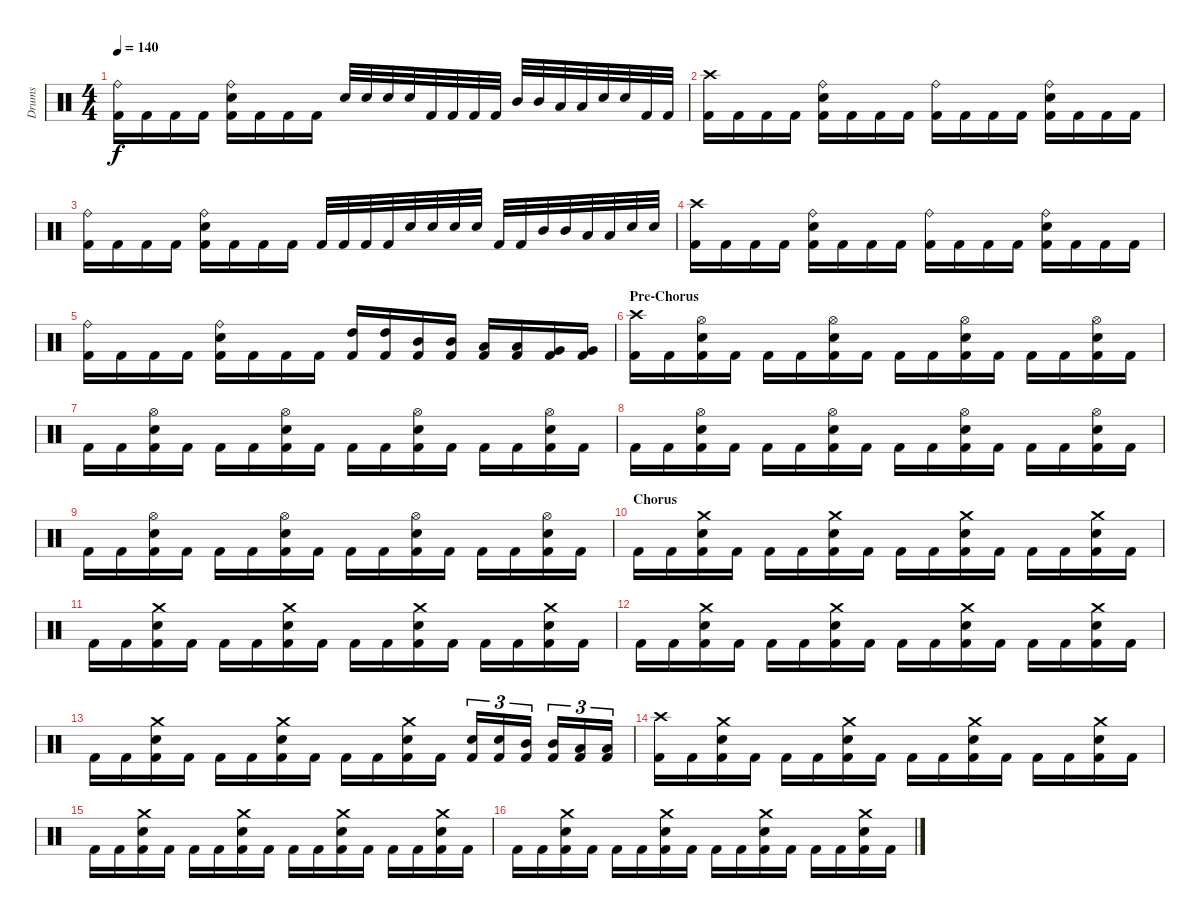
\track ("Drums" "Drums") {instrument percussion}
\staff {score}
\articulation defaults
\ts (4 4)
\tempo 140
\clef neutral
\ks c
("Ride (bell)" "Kick (hit) 2").16{dy f} "Kick (hit) 2".16 "Kick (hit) 2".16 "Kick (hit) 2".16 ("Ride (bell)" "Electric Snare (hit)" "Kick (hit) 2").16 "Kick (hit) 2".16 "Kick (hit) 2".16 "Kick (hit) 2".16 "Electric Snare (hit)".32 "Electric Snare (hit)".32 "Electric Snare (hit)".32 "Electric Snare (hit)".32 "Kick (hit) 2".32 "Kick (hit) 2".32 "Kick (hit) 2".32 "Kick (hit) 2".32 "Mid Tom (hit)".32 "Mid Tom (hit)".32 "Low Tom (hit)".32 "Low Tom (hit)".32 "Electric Snare (hit)".32 "Electric Snare (hit)".32 "Kick (hit) 2".32 "Kick (hit) 2".32 |
("Crash high (hit)" "Kick (hit) 2").16 "Kick (hit) 2".16 "Kick (hit) 2".16 "Kick (hit) 2".16 ("Ride (bell)" "Electric Snare (hit)" "Kick (hit) 2").16 "Kick (hit) 2".16 "Kick (hit) 2".16 "Kick (hit) 2".16 ("Ride (bell)" "Kick (hit) 2").16 "Kick (hit) 2".16 "Kick (hit) 2".16 "Kick (hit) 2".16 ("Ride (bell)" "Electric Snare (hit)" "Kick (hit) 2").16 "Kick (hit) 2".16 "Kick (hit) 2".16 "Kick (hit) 2".16 |
("Ride (bell)" "Kick (hit) 2").16 "Kick (hit) 2".16 "Kick (hit) 2".16 "Kick (hit) 2".16 ("Ride (bell)" "Electric Snare (hit)" "Kick (hit) 2").16 "Kick (hit) 2".16 "Kick (hit) 2".16 "Kick (hit) 2".16 "Kick (hit) 2".32 "Kick (hit) 2".32 "Kick (hit) 2".32 "Kick (hit) 2".32 "Electric Snare (hit)".32 "Electric Snare (hit)".32 "Electric Snare (hit)".32 "Electric Snare (hit)".32 "Kick (hit) 2".32 "Kick (hit) 2".32 "Mid Tom (hit)".32 "Mid Tom (hit)".32 "Low Tom (hit)".32 "Low Tom (hit)".32 "Electric Snare (hit)".32 "Electric Snare (hit)".32 |
("Crash high (hit)" "Kick (hit) 2").16 "Kick (hit) 2".16 "Kick (hit) 2".16 "Kick (hit) 2".16 ("Ride (bell)" "Electric Snare (hit)" "Kick (hit) 2").16 "Kick (hit) 2".16 "Kick (hit) 2".16 "Kick (hit) 2".16 ("Ride (bell)" "Kick (hit) 2").16 "Kick (hit) 2".16 "Kick (hit) 2".16 "Kick (hit) 2".16 ("Ride (bell)" "Electric Snare (hit)" "Kick (hit) 2").16 "Kick (hit) 2".16 "Kick (hit) 2".16 "Kick (hit) 2".16 |
("Ride (bell)" "Kick (hit) 2").16 "Kick (hit) 2".16 "Kick (hit) 2".16 "Kick (hit) 2".16 ("Ride (bell)" "Electric Snare (hit)" "Kick (hit) 2").16 "Kick (hit) 2".16 "Kick (hit) 2".16 "Kick (hit) 2".16 ("High Tom (hit)" "Kick (hit) 2").16 ("High Tom (hit)" "Kick (hit) 2").16 ("Mid Tom (hit)" "Kick (hit) 2").16 ("Mid Tom (hit)" "Kick (hit) 2").16 ("Low Tom (hit)" "Kick (hit) 2").16 ("Low Tom (hit)" "Kick (hit) 2").16 ("Very Low Tom (hit)" "Kick (hit) 2").16 ("Very Low Tom (hit)" "Kick (hit) 2").16 |
\section ("" "Pre-Chorus")
("Crash high (hit)" "Kick (hit) 2").16 "Kick (hit) 2".16 ("Hi-Hat (open)" "Electric Snare (hit)" "Kick (hit) 2").16 "Kick (hit) 2".16 "Kick (hit) 2".16 "Kick (hit) 2".16 ("Hi-Hat (open)" "Electric Snare (hit)" "Kick (hit) 2").16 "Kick (hit) 2".16 "Kick (hit) 2".16 "Kick (hit) 2".16 ("Hi-Hat (open)" "Electric Snare (hit)" "Kick (hit) 2").16 "Kick (hit) 2".16 "Kick (hit) 2".16 "Kick (hit) 2".16 ("Hi-Hat (open)" "Electric Snare (hit)" "Kick (hit) 2").16 "Kick (hit) 2".16 |
"Kick (hit) 2".16 "Kick (hit) 2".16 ("Hi-Hat (open)" "Electric Snare (hit)" "Kick (hit) 2").16 "Kick (hit) 2".16 "Kick (hit) 2".16 "Kick (hit) 2".16 ("Hi-Hat (open)" "Electric Snare (hit)" "Kick (hit) 2").16 "Kick (hit) 2".16 "Kick (hit) 2".16 "Kick (hit) 2".16 ("Hi-Hat (open)" "Electric Snare (hit)" "Kick (hit) 2").16 "Kick (hit) 2".16 "Kick (hit) 2".16 "Kick (hit) 2".16 ("Hi-Hat (open)" "Electric Snare (hit)" "Kick (hit) 2").16 "Kick (hit) 2".16 |
"Kick (hit) 2".16 "Kick (hit) 2".16 ("Hi-Hat (open)" "Electric Snare (hit)" "Kick (hit) 2").16 "Kick (hit) 2".16 "Kick (hit) 2".16 "Kick (hit) 2".16 ("Hi-Hat (open)" "Electric Snare (hit)" "Kick (hit) 2").16 "Kick (hit) 2".16 "Kick (hit) 2".16 "Kick (hit) 2".16 ("Hi-Hat (open)" "Electric Snare (hit)" "Kick (hit) 2").16 "Kick (hit) 2".16 "Kick (hit) 2".16 "Kick (hit) 2".16 ("Hi-Hat (open)" "Electric Snare (hit)" "Kick (hit) 2").16 "Kick (hit) 2".16 |
"Kick (hit) 2".16 "Kick (hit) 2".16 ("Hi-Hat (open)" "Electric Snare (hit)" "Kick (hit) 2").16 "Kick (hit) 2".16 "Kick (hit) 2".16 "Kick (hit) 2".16 ("Hi-Hat (open)" "Electric Snare (hit)" "Kick (hit) 2").16 "Kick (hit) 2".16 "Kick (hit) 2".16 "Kick (hit) 2".16 ("Hi-Hat (open)" "Electric Snare (hit)" "Kick (hit) 2").16 "Kick (hit) 2".16 "Kick (hit) 2".16 "Kick (hit) 2".16 ("Hi-Hat (open)" "Electric Snare (hit)" "Kick (hit) 2").16 "Kick (hit) 2".16 |
\section ("" "Chorus")
"Kick (hit) 2".16 "Kick (hit) 2".16 ("Crash medium (hit)" "Electric Snare (hit)" "Kick (hit) 2").16 "Kick (hit) 2".16 "Kick (hit) 2".16 "Kick (hit) 2".16 ("Crash medium (hit)" "Electric Snare (hit)" "Kick (hit) 2").16 "Kick (hit) 2".16 "Kick (hit) 2".16 "Kick (hit) 2".16 ("Crash medium (hit)" "Electric Snare (hit)" "Kick (hit) 2").16 "Kick (hit) 2".16 "Kick (hit) 2".16 "Kick (hit) 2".16 ("Crash medium (hit)" "Electric Snare (hit)" "Kick (hit) 2").16 "Kick (hit) 2".16 |
"Kick (hit) 2".16 "Kick (hit) 2".16 ("Crash medium (hit)" "Electric Snare (hit)" "Kick (hit) 2").16 "Kick (hit) 2".16 "Kick (hit) 2".16 "Kick (hit) 2".16 ("Crash medium (hit)" "Electric Snare (hit)" "Kick (hit) 2").16 "Kick (hit) 2".16 "Kick (hit) 2".16 "Kick (hit) 2".16 ("Crash medium (hit)" "Electric Snare (hit)" "Kick (hit) 2").16 "Kick (hit) 2".16 "Kick (hit) 2".16 "Kick (hit) 2".16 ("Crash medium (hit)" "Electric Snare (hit)" "Kick (hit) 2").16 "Kick (hit) 2".16 |
"Kick (hit) 2".16 "Kick (hit) 2".16 ("Crash medium (hit)" "Electric Snare (hit)" "Kick (hit) 2").16 "Kick (hit) 2".16 "Kick (hit) 2".16 "Kick (hit) 2".16 ("Crash medium (hit)" "Electric Snare (hit)" "Kick (hit) 2").16 "Kick (hit) 2".16 "Kick (hit) 2".16 "Kick (hit) 2".16 ("Crash medium (hit)" "Electric Snare (hit)" "Kick (hit) 2").16 "Kick (hit) 2".16 "Kick (hit) 2".16 "Kick (hit) 2".16 ("Crash medium (hit)" "Electric Snare (hit)" "Kick (hit) 2").16 "Kick (hit) 2".16 |
"Kick (hit) 2".16 "Kick (hit) 2".16 ("Crash medium (hit)" "Electric Snare (hit)" "Kick (hit) 2").16 "Kick (hit) 2".16 "Kick (hit) 2".16 "Kick (hit) 2".16 ("Crash medium (hit)" "Electric Snare (hit)" "Kick (hit) 2").16 "Kick (hit) 2".16 "Kick (hit) 2".16 "Kick (hit) 2".16 ("Crash medium (hit)" "Electric Snare (hit)" "Kick (hit) 2").16 "Kick (hit) 2".16 ("Electric Snare (hit)" "Kick (hit) 2").16{tu (3 2)} ("Electric Snare (hit)" "Kick (hit) 2").16{tu (3 2)} ("Mid Tom (hit)" "Kick (hit) 2").16{tu (3 2)} ("Mid Tom (hit)" "Kick (hit) 2").16{tu (3 2)} ("Low Tom (hit)" "Kick (hit) 2").16{tu (3 2)} ("Low Tom (hit)" "Kick (hit) 2").16{tu (3 2)} |
("Crash high (hit)" "Kick (hit) 2").16 "Kick (hit) 2".16 ("Crash medium (hit)" "Electric Snare (hit)" "Kick (hit) 2").16 "Kick (hit) 2".16 "Kick (hit) 2".16 "Kick (hit) 2".16 ("Crash medium (hit)" "Electric Snare (hit)" "Kick (hit) 2").16 "Kick (hit) 2".16 "Kick (hit) 2".16 "Kick (hit) 2".16 ("Crash medium (hit)" "Electric Snare (hit)" "Kick (hit) 2").16 "Kick (hit) 2".16 "Kick (hit) 2".16 "Kick (hit) 2".16 ("Crash medium (hit)" "Electric Snare (hit)" "Kick (hit) 2").16 "Kick (hit) 2".16 |
"Kick (hit) 2".16 "Kick (hit) 2".16 ("Crash medium (hit)" "Electric Snare (hit)" "Kick (hit) 2").16 "Kick (hit) 2".16 "Kick (hit) 2".16 "Kick (hit) 2".16 ("Crash medium (hit)" "Electric Snare (hit)" "Kick (hit) 2").16 "Kick (hit) 2".16 "Kick (hit) 2".16 "Kick (hit) 2".16 ("Crash medium (hit)" "Electric Snare (hit)" "Kick (hit) 2").16 "Kick (hit) 2".16 "Kick (hit) 2".16 "Kick (hit) 2".16 ("Crash medium (hit)" "Electric Snare (hit)" "Kick (hit) 2").16 "Kick (hit) 2".16 |
"Kick (hit) 2".16 "Kick (hit) 2".16 ("Crash medium (hit)" "Electric Snare (hit)" "Kick (hit) 2").16 "Kick (hit) 2".16 "Kick (hit) 2".16 "Kick (hit) 2".16 ("Crash medium (hit)" "Electric Snare (hit)" "Kick (hit) 2").16 "Kick (hit) 2".16 "Kick (hit) 2".16 "Kick (hit) 2".16 ("Crash medium (hit)" "Electric Snare (hit)" "Kick (hit) 2").16 "Kick (hit) 2".16 "Kick (hit) 2".16 "Kick (hit) 2".16 ("Crash medium (hit)" "Electric Snare (hit)" "Kick (hit) 2").16 "Kick (hit) 2".16
